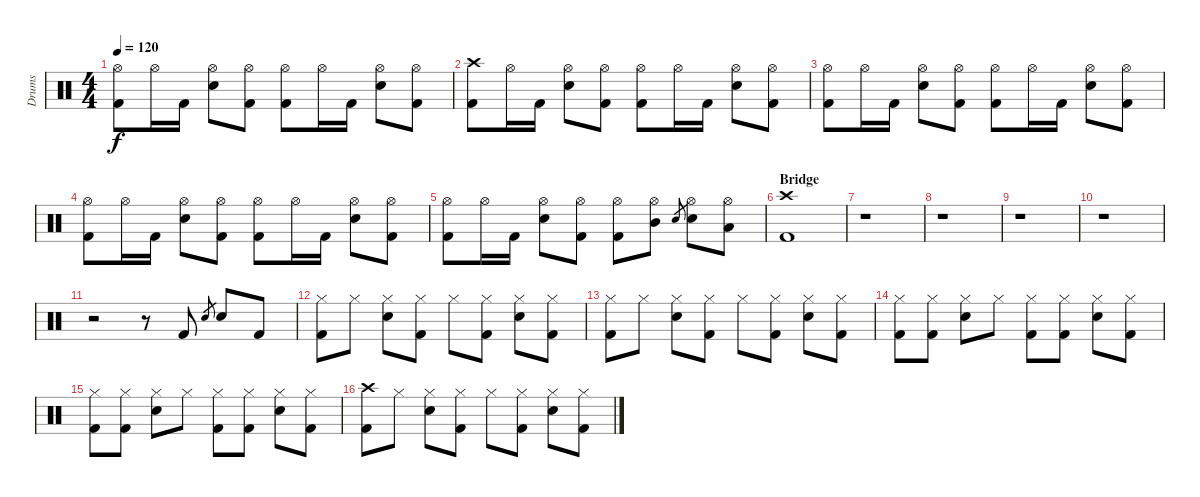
\track ("Drums" "Drums") {instrument percussion}
\staff {score}
\articulation defaults
\ts (4 4)
\tempo 120
\clef neutral
\ks c
("Hi-Hat (open)" "Kick (hit) 2").8{dy f} "Hi-Hat (open)".16 "Kick (hit) 2".16 ("Hi-Hat (open)" "Electric Snare (hit)").8 ("Hi-Hat (open)" "Kick (hit) 2").8 ("Hi-Hat (open)" "Kick (hit) 2").8 "Hi-Hat (open)".16 "Kick (hit) 2".16 ("Hi-Hat (open)" "Electric Snare (hit)").8 ("Hi-Hat (open)" "Kick (hit) 2").8 |
("Crash high (hit)" "Kick (hit) 2").8 "Hi-Hat (open)".16 "Kick (hit) 2".16 ("Hi-Hat (open)" "Electric Snare (hit)").8 ("Hi-Hat (open)" "Kick (hit) 2").8 ("Hi-Hat (open)" "Kick (hit) 2").8 "Hi-Hat (open)".16 "Kick (hit) 2".16 ("Hi-Hat (open)" "Electric Snare (hit)").8 ("Hi-Hat (open)" "Kick (hit) 2").8 |
("Hi-Hat (open)" "Kick (hit) 2").8 "Hi-Hat (open)".16 "Kick (hit) 2".16 ("Hi-Hat (open)" "Electric Snare (hit)").8 ("Hi-Hat (open)" "Kick (hit) 2").8 ("Hi-Hat (open)" "Kick (hit) 2").8 "Hi-Hat (open)".16 "Kick (hit) 2".16 ("Hi-Hat (open)" "Electric Snare (hit)").8 ("Hi-Hat (open)" "Kick (hit) 2").8 |
("Hi-Hat (open)" "Kick (hit) 2").8 "Hi-Hat (open)".16 "Kick (hit) 2".16 ("Hi-Hat (open)" "Electric Snare (hit)").8 ("Hi-Hat (open)" "Kick (hit) 2").8 ("Hi-Hat (open)" "Kick (hit) 2").8 "Hi-Hat (open)".16 "Kick (hit) 2".16 ("Hi-Hat (open)" "Electric Snare (hit)").8 ("Hi-Hat (open)" "Kick (hit) 2").8 |
("Hi-Hat (open)" "Kick (hit) 2").8 "Hi-Hat (open)".16 "Kick (hit) 2".16 ("Hi-Hat (open)" "Electric Snare (hit)").8 ("Hi-Hat (open)" "Kick (hit) 2").8 ("Hi-Hat (open)" "Kick (hit) 2").8 ("Hi-Hat (open)" "Mid Tom (hit)").8 "Electric Snare (hit)".8{gr} ("Hi-Hat (open)" "Electric Snare (hit)").8 ("Hi-Hat (open)" "Low Tom (hit)").8 |
\section ("" "Bridge")
("Crash high (hit)" "Kick (hit) 2").1 |
r.1 |
r.1 |
r.1 |
r.1 |
r.2 r.8 "Kick (hit) 2".8 "Electric Snare (hit)".8{gr} "Electric Snare (hit)".8 "Kick (hit) 2".8 |
("Hi-Hat (closed)" "Kick (hit) 2").8 "Hi-Hat (closed)".8 ("Hi-Hat (closed)" "Electric Snare (hit)").8 ("Hi-Hat (closed)" "Kick (hit) 2").8 "Hi-Hat (closed)".8 ("Hi-Hat (closed)" "Kick (hit) 2").8 ("Hi-Hat (closed)" "Electric Snare (hit)").8 ("Hi-Hat (closed)" "Kick (hit) 2").8 |
("Hi-Hat (closed)" "Kick (hit) 2").8 "Hi-Hat (closed)".8 ("Hi-Hat (closed)" "Electric Snare (hit)").8 ("Hi-Hat (closed)" "Kick (hit) 2").8 "Hi-Hat (closed)".8 ("Hi-Hat (closed)" "Kick (hit) 2").8 ("Hi-Hat (closed)" "Electric Snare (hit)").8 ("Hi-Hat (closed)" "Kick (hit) 2").8 |
("Hi-Hat (closed)" "Kick (hit) 2").8 ("Hi-Hat (closed)" "Kick (hit) 2").8 ("Hi-Hat (closed)" "Electric Snare (hit)").8 "Hi-Hat (closed)".8 ("Hi-Hat (closed)" "Kick (hit) 2").8 ("Hi-Hat (closed)" "Kick (hit) 2").8 ("Hi-Hat (closed)" "Electric Snare (hit)").8 ("Hi-Hat (closed)" "Kick (hit) 2").8 |
("Hi-Hat (closed)" "Kick (hit) 2").8 ("Hi-Hat (closed)" "Kick (hit) 2").8 ("Hi-Hat (closed)" "Electric Snare (hit)").8 "Hi-Hat (closed)".8 ("Hi-Hat (closed)" "Kick (hit) 2").8 ("Hi-Hat (closed)" "Kick (hit) 2").8 ("Hi-Hat (closed)" "Electric Snare (hit)").8 ("Hi-Hat (closed)" "Kick (hit) 2").8 |
("Crash high (hit)" "Kick (hit) 2").8 "Hi-Hat (closed)".8 ("Hi-Hat (closed)" "Electric Snare (hit)").8 ("Hi-Hat (closed)" "Kick (hit) 2").8 "Hi-Hat (closed)".8 ("Hi-Hat (closed)" "Kick (hit) 2").8 ("Hi-Hat (closed)" "Electric Snare (hit)").8 ("Hi-Hat (closed)" "Kick (hit) 2").8
